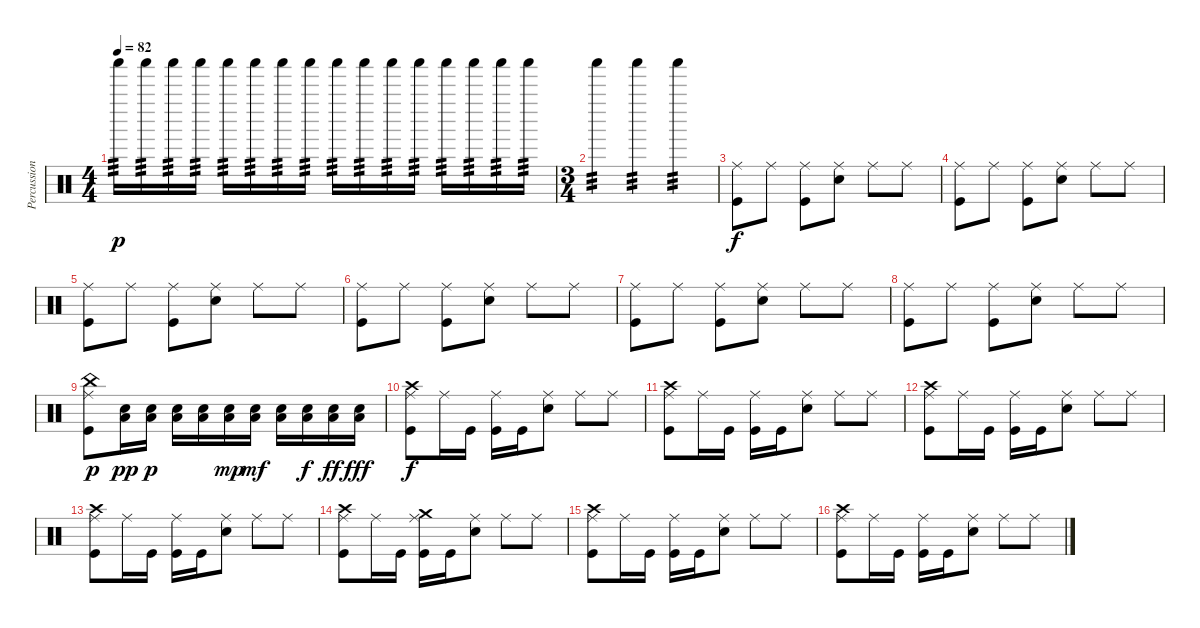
\track ("Percussions" "Percussion") {instrument percussion}
\staff {score}
\articulation defaults
\ts (4 4)
\tempo 82
\clef neutral
\ks c "Shaker (hit)".16{tp 3 dy p} "Shaker (hit)".16{tp 3} "Shaker (hit)".16{tp 3} "Shaker (hit)".16{tp 3} "Shaker (hit)".16{tp 3} "Shaker (hit)".16{tp 3} "Shaker (hit)".16{tp 3} "Shaker (hit)".16{tp 3} "Shaker (hit)".16{tp 3} "Shaker (hit)".16{tp 3} "Shaker (hit)".16{tp 3} "Shaker (hit)".16{tp 3} "Shaker (hit)".16{tp 3} "Shaker (hit)".16{tp 3} "Shaker (hit)".16{tp 3} "Shaker (hit)".16{tp 3}
|
\ts (3 4)
"Shaker (hit)".4{tp 3} "Shaker (hit)".4{tp 3} "Shaker (hit)".4{tp 3} |
("Ride (middle)" "Kick (hit)").8{dy f} "Ride (middle)".8 ("Ride (middle)" "Kick (hit)").8 ("Ride (middle)" "Electric Snare (hit)").8 "Ride (middle)".8 "Ride (middle)".8 |
("Ride (middle)" "Kick (hit)").8 "Ride (middle)".8 ("Ride (middle)" "Kick (hit)").8 ("Ride (middle)" "Electric Snare (hit)").8 "Ride (middle)".8 "Ride (middle)".8 |
("Ride (middle)" "Kick (hit)").8 "Ride (middle)".8 ("Ride (middle)" "Kick (hit)").8 ("Ride (middle)" "Electric Snare (hit)").8 "Ride (middle)".8 "Ride (middle)".8 |
("Ride (middle)" "Kick (hit)").8 "Ride (middle)".8 ("Ride (middle)" "Kick (hit)").8 ("Ride (middle)" "Electric Snare (hit)").8 "Ride (middle)".8 "Ride (middle)".8 |
("Ride (middle)" "Kick (hit)").8 "Ride (middle)".8 ("Ride (middle)" "Kick (hit)").8 ("Ride (middle)" "Electric Snare (hit)").8 "Ride (middle)".8 "Ride (middle)".8 |
("Ride (middle)" "Kick (hit)").8 "Ride (middle)".8 ("Ride (middle)" "Kick (hit)").8 ("Ride (middle)" "Electric Snare (hit)").8 "Ride (middle)".8 "Ride (middle)".8 |
("Ride (middle)" "China (hit)" "Kick (hit)").8{dy p} ("Electric Snare (hit)" "Low Floor Tom (hit)").16{dy pp} ("Electric Snare (hit)" "Low Floor Tom (hit)").16{dy p} ("Electric Snare (hit)" "Low Floor Tom (hit)").16 ("Electric Snare (hit)" "Low Floor Tom (hit)").16 ("Electric Snare (hit)" "Low Floor Tom (hit)").16{dy mp} ("Electric Snare (hit)" "Low Floor Tom (hit)").16{dy mf} ("Electric Snare (hit)" "Low Floor Tom (hit)").16 ("Electric Snare (hit)" "Low Floor Tom (hit)").16{dy f} ("Electric Snare (hit)" "Low Floor Tom (hit)").16{dy ff} ("Electric Snare (hit)" "Low Floor Tom (hit)").16{dy fff} |
("Ride (middle)" "Crash high (hit)" "Kick (hit)").8{dy f} "Ride (middle)".16 "Kick (hit)".16 ("Ride (middle)" "Kick (hit)").16 "Kick (hit)".16 ("Ride (middle)" "Electric Snare (hit)").8 "Ride (middle)".8 "Ride (middle)".8 |
("Ride (middle)" "Crash high (hit)" "Kick (hit)").8 "Ride (middle)".16 "Kick (hit)".16 ("Ride (middle)" "Kick (hit)").16 "Kick (hit)".16 ("Ride (middle)" "Electric Snare (hit)").8 "Ride (middle)".8 "Ride (middle)".8 |
("Ride (middle)" "Crash high (hit)" "Kick (hit)").8 "Ride (middle)".16 "Kick (hit)".16 ("Ride (middle)" "Kick (hit)").16 "Kick (hit)".16 ("Ride (middle)" "Electric Snare (hit)").8 "Ride (middle)".8 "Ride (middle)".8 |
("Ride (middle)" "Crash high (hit)" "Kick (hit)").8 "Ride (middle)".16 "Kick (hit)".16 ("Ride (middle)" "Kick (hit)").16 "Kick (hit)".16 ("Ride (middle)" "Electric Snare (hit)").8 "Ride (middle)".8 "Ride (middle)".8 |
("Ride (middle)" "Crash high (hit)" "Kick (hit)").8 "Ride (middle)".16 "Kick (hit)".16 ("Ride (middle)" "Crash medium (hit)" "Kick (hit)").16 "Kick (hit)".16 ("Ride (middle)" "Electric Snare (hit)").8 "Ride (middle)".8 "Ride (middle)".8 |
("Ride (middle)" "Crash high (hit)" "Kick (hit)").8 "Ride (middle)".16 "Kick (hit)".16 ("Ride (middle)" "Kick (hit)").16 "Kick (hit)".16 ("Ride (middle)" "Electric Snare (hit)").8 "Ride (middle)".8 "Ride (middle)".8 |
("Ride (middle)" "Crash high (hit)" "Kick (hit)").8 "Ride (middle)".16 "Kick (hit)".16 ("Ride (middle)" "Kick (hit)").16 "Kick (hit)".16 ("Ride (middle)" "Electric Snare (hit)").8 "Ride (middle)".8 "Ride (middle)".8
